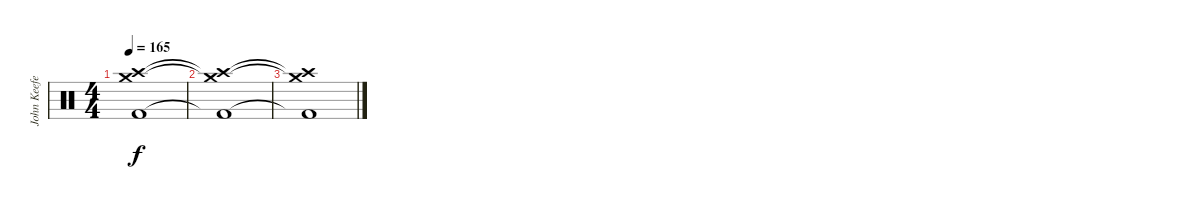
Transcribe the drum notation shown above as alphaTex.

\track ("John Keefe (Percussion)" "John Keefe") {instrument percussion}
\staff {score}
\articulation defaults
\ts (4 4)
\tempo 165
\clef neutral
\ks c
("Crash medium (hit)" "Crash high (hit)" "Kick (hit) 2").1{dy f} |
("Crash medium (hit)"{t} "Crash high (hit)"{t} "Kick (hit) 2"{t}).1{volume 0} |
("Crash medium (hit)"{t} "Crash high (hit)"{t} "Kick (hit) 2"{t}).1
